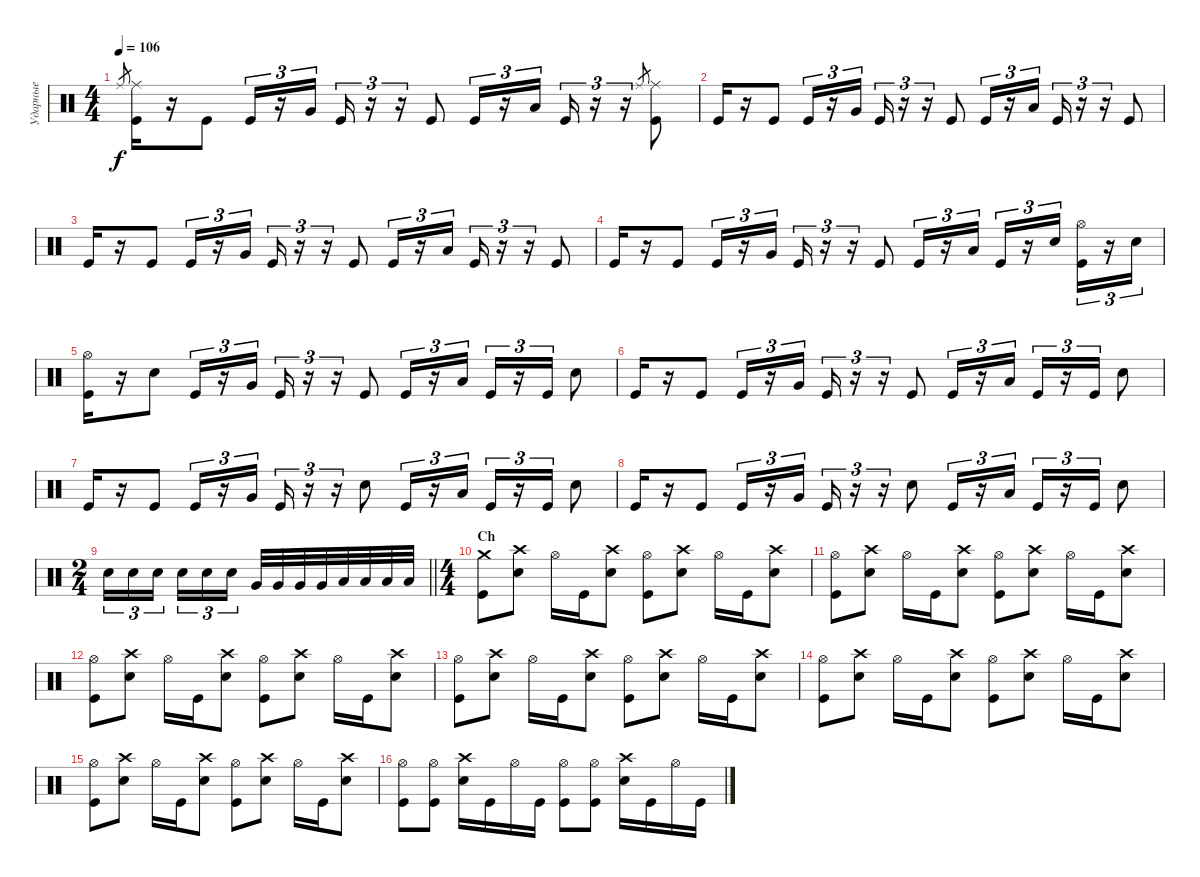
\track ("Ударные" "Ударные") {instrument percussion}
\staff {score}
\articulation defaults
\ts (4 4)
\tempo 106
\clef neutral
\ks c "Ride (middle)".8{gr dy f}
("Kick (hit)" "Ride (middle)").16 r.16 "Kick (hit)".8 "Kick (hit)".16{tu (3 2)} r.16{tu (3 2)} "Very Low Tom (hit)".16{tu (3 2)} "Kick (hit)".16{tu (3 2)} r.16{tu (3 2)} r.16{tu (3 2)} "Kick (hit)".8 "Kick (hit)".16{tu (3 2)} r.16{tu (3 2)} "Low Floor Tom (hit)".16{tu (3 2)} "Kick (hit)".16{tu (3 2)} r.16{tu (3 2)} r.16{tu (3 2)} "Ride (middle)".8{gr} ("Kick (hit)" "Ride (middle)").8 |
"Kick (hit)".16 r.16 "Kick (hit)".8 "Kick (hit)".16{tu (3 2)} r.16{tu (3 2)} "Very Low Tom (hit)".16{tu (3 2)} "Kick (hit)".16{tu (3 2)} r.16{tu (3 2)} r.16{tu (3 2)} "Kick (hit)".8 "Kick (hit)".16{tu (3 2)} r.16{tu (3 2)} "Low Floor Tom (hit)".16{tu (3 2)} "Kick (hit)".16{tu (3 2)} r.16{tu (3 2)} r.16{tu (3 2)} "Kick (hit)".8 |
"Kick (hit)".16 r.16 "Kick (hit)".8 "Kick (hit)".16{tu (3 2)} r.16{tu (3 2)} "Very Low Tom (hit)".16{tu (3 2)} "Kick (hit)".16{tu (3 2)} r.16{tu (3 2)} r.16{tu (3 2)} "Kick (hit)".8 "Kick (hit)".16{tu (3 2)} r.16{tu (3 2)} "Low Floor Tom (hit)".16{tu (3 2)} "Kick (hit)".16{tu (3 2)} r.16{tu (3 2)} r.16{tu (3 2)} "Kick (hit)".8 |
"Kick (hit)".16 r.16 "Kick (hit)".8 "Kick (hit)".16{tu (3 2)} r.16{tu (3 2)} "Very Low Tom (hit)".16{tu (3 2)} "Kick (hit)".16{tu (3 2)} r.16{tu (3 2)} r.16{tu (3 2)} "Kick (hit)".8 "Kick (hit)".16{tu (3 2)} r.16{tu (3 2)} "Low Floor Tom (hit)".16{tu (3 2)} "Kick (hit)".16{tu (3 2)} r.16{tu (3 2)} "Snare (hit) 2".16{tu (3 2)} ("Kick (hit)" "Hi-Hat (open)").16{tu (3 2)} r.16{tu (3 2)} "Snare (hit) 2".16{tu (3 2)} |
("Kick (hit)" "Hi-Hat (open)").16 r.16 "Snare (hit) 2".8 "Kick (hit)".16{tu (3 2)} r.16{tu (3 2)} "Very Low Tom (hit)".16{tu (3 2)} "Kick (hit)".16{tu (3 2)} r.16{tu (3 2)} r.16{tu (3 2)} "Kick (hit)".8 "Kick (hit)".16{tu (3 2)} r.16{tu (3 2)} "Low Floor Tom (hit)".16{tu (3 2)} "Kick (hit)".16{tu (3 2)} r.16{tu (3 2)} "Kick (hit)".16{tu (3 2)} "Snare (hit) 2".8 |
"Kick (hit)".16 r.16 "Kick (hit)".8 "Kick (hit)".16{tu (3 2)} r.16{tu (3 2)} "Very Low Tom (hit)".16{tu (3 2)} "Kick (hit)".16{tu (3 2)} r.16{tu (3 2)} r.16{tu (3 2)} "Kick (hit)".8 "Kick (hit)".16{tu (3 2)} r.16{tu (3 2)} "Low Floor Tom (hit)".16{tu (3 2)} "Kick (hit)".16{tu (3 2)} r.16{tu (3 2)} "Kick (hit)".16{tu (3 2)} "Snare (hit) 2".8 |
"Kick (hit)".16 r.16 "Kick (hit)".8 "Kick (hit)".16{tu (3 2)} r.16{tu (3 2)} "Very Low Tom (hit)".16{tu (3 2)} "Kick (hit)".16{tu (3 2)} r.16{tu (3 2)} r.16{tu (3 2)} "Snare (hit) 2".8 "Kick (hit)".16{tu (3 2)} r.16{tu (3 2)} "Low Floor Tom (hit)".16{tu (3 2)} "Kick (hit)".16{tu (3 2)} r.16{tu (3 2)} "Kick (hit)".16{tu (3 2)} "Snare (hit) 2".8 |
"Kick (hit)".16 r.16 "Kick (hit)".8 "Kick (hit)".16{tu (3 2)} r.16{tu (3 2)} "Very Low Tom (hit)".16{tu (3 2)} "Kick (hit)".16{tu (3 2)} r.16{tu (3 2)} r.16{tu (3 2)} "Snare (hit) 2".8 "Kick (hit)".16{tu (3 2)} r.16{tu (3 2)} "Low Floor Tom (hit)".16{tu (3 2)} "Kick (hit)".16{tu (3 2)} r.16{tu (3 2)} "Kick (hit)".16{tu (3 2)} "Snare (hit) 2".8 |
\ts (2 4)
\barLineRight lightlight "Snare (hit) 2".16{tu (3 2)} "Snare (hit) 2".16{tu (3 2)} "Snare (hit) 2".16{tu (3 2) beam splitsecondary} "Snare (hit) 2".16{tu (3 2)} "Snare (hit) 2".16{tu (3 2)} "Snare (hit) 2".16{tu (3 2)} "Very Low Tom (hit)".32 "Very Low Tom (hit)".32 "Very Low Tom (hit)".32 "Very Low Tom (hit)".32 "Low Floor Tom (hit)".32 "Low Floor Tom (hit)".32 "Low Floor Tom (hit)".32 "Low Floor Tom (hit)".32
|
\ts (4 4)
\section ("" "Ch")
("Kick (hit)" "Crash medium (hit)").8 ("Snare (hit) 2" "Crash high (hit)").8 "Hi-Hat (open)".16 "Kick (hit)".16 ("Snare (hit) 2" "Crash high (hit)").8 ("Kick (hit)" "Hi-Hat (open)").8 ("Snare (hit) 2" "Crash high (hit)").8 "Hi-Hat (open)".16 "Kick (hit)".16 ("Snare (hit) 2" "Crash high (hit)").8 |
("Kick (hit)" "Hi-Hat (open)").8 ("Snare (hit) 2" "Crash high (hit)").8 "Hi-Hat (open)".16 "Kick (hit)".16 ("Snare (hit) 2" "Crash high (hit)").8 ("Kick (hit)" "Hi-Hat (open)").8 ("Snare (hit) 2" "Crash high (hit)").8 "Hi-Hat (open)".16 "Kick (hit)".16 ("Snare (hit) 2" "Crash high (hit)").8 |
("Kick (hit)" "Hi-Hat (open)").8 ("Snare (hit) 2" "Crash high (hit)").8 "Hi-Hat (open)".16 "Kick (hit)".16 ("Snare (hit) 2" "Crash high (hit)").8 ("Kick (hit)" "Hi-Hat (open)").8 ("Snare (hit) 2" "Crash high (hit)").8 "Hi-Hat (open)".16 "Kick (hit)".16 ("Snare (hit) 2" "Crash high (hit)").8 |
("Kick (hit)" "Hi-Hat (open)").8 ("Snare (hit) 2" "Crash high (hit)").8 "Hi-Hat (open)".16 "Kick (hit)".16 ("Snare (hit) 2" "Crash high (hit)").8 ("Kick (hit)" "Hi-Hat (open)").8 ("Snare (hit) 2" "Crash high (hit)").8 "Hi-Hat (open)".16 "Kick (hit)".16 ("Snare (hit) 2" "Crash high (hit)").8 |
("Kick (hit)" "Hi-Hat (open)").8 ("Snare (hit) 2" "Crash high (hit)").8 "Hi-Hat (open)".16 "Kick (hit)".16 ("Snare (hit) 2" "Crash high (hit)").8 ("Kick (hit)" "Hi-Hat (open)").8 ("Snare (hit) 2" "Crash high (hit)").8 "Hi-Hat (open)".16 "Kick (hit)".16 ("Snare (hit) 2" "Crash high (hit)").8 |
("Kick (hit)" "Hi-Hat (open)").8 ("Snare (hit) 2" "Crash high (hit)").8 "Hi-Hat (open)".16 "Kick (hit)".16 ("Snare (hit) 2" "Crash high (hit)").8 ("Kick (hit)" "Hi-Hat (open)").8 ("Snare (hit) 2" "Crash high (hit)").8 "Hi-Hat (open)".16 "Kick (hit)".16 ("Snare (hit) 2" "Crash high (hit)").8 |
("Kick (hit)" "Hi-Hat (open)").8 ("Kick (hit)" "Hi-Hat (open)").8 ("Snare (hit) 2" "Crash high (hit)").16 "Kick (hit)".16 "Hi-Hat (open)".16 "Kick (hit)".16 ("Kick (hit)" "Hi-Hat (open)").8 ("Kick (hit)" "Hi-Hat (open)").8 ("Snare (hit) 2" "Crash high (hit)").16 "Kick (hit)".16 "Hi-Hat (open)".16 "Kick (hit)".16
